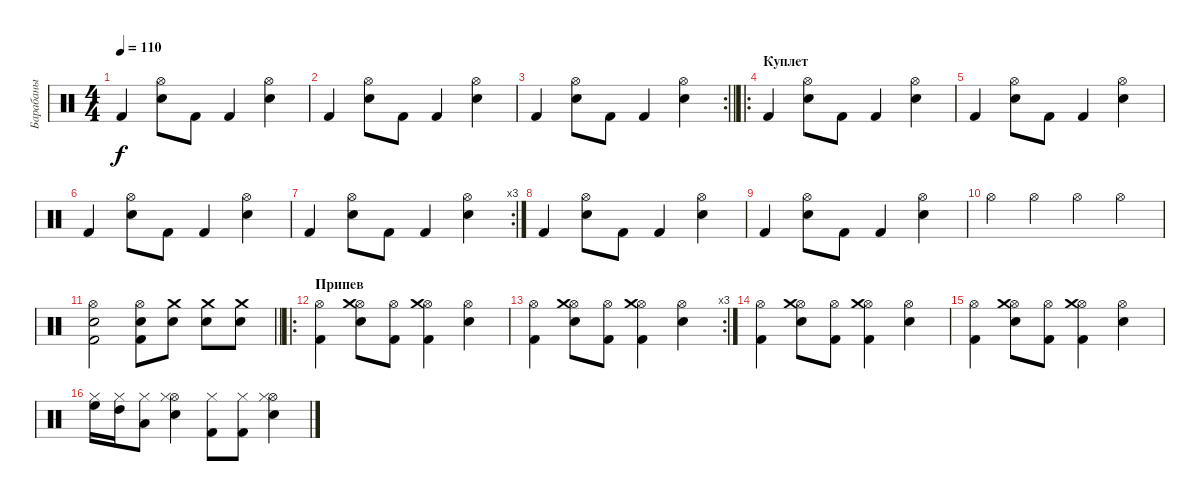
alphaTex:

\track ("Барабаны" "Барабаны") {instrument percussion}
\staff {score}
\articulation defaults
\ts (4 4)
\tempo 110
\clef neutral
\ks c "Kick (hit) 2".4{dy f}
("Snare (hit) 2" "Hi-Hat (open)").8 "Kick (hit) 2".8 "Kick (hit) 2".4 ("Snare (hit) 2" "Hi-Hat (open)").4 |
"Kick (hit) 2".4 ("Snare (hit) 2" "Hi-Hat (open)").8 "Kick (hit) 2".8 "Kick (hit) 2".4 ("Snare (hit) 2" "Hi-Hat (open)").4 |
\rc 2
\barLineRight lightlight "Kick (hit) 2".4
("Snare (hit) 2" "Hi-Hat (open)").8 "Kick (hit) 2".8 "Kick (hit) 2".4 ("Snare (hit) 2" "Hi-Hat (open)").4 |
\ro
\section ("" "Куплет")
"Kick (hit) 2".4 ("Snare (hit) 2" "Hi-Hat (open)").8 "Kick (hit) 2".8 "Kick (hit) 2".4 ("Snare (hit) 2" "Hi-Hat (open)").4 |
"Kick (hit) 2".4 ("Snare (hit) 2" "Hi-Hat (open)").8 "Kick (hit) 2".8 "Kick (hit) 2".4 ("Snare (hit) 2" "Hi-Hat (open)").4 |
"Kick (hit) 2".4 ("Snare (hit) 2" "Hi-Hat (open)").8 "Kick (hit) 2".8 "Kick (hit) 2".4 ("Snare (hit) 2" "Hi-Hat (open)").4 |
\rc 3 "Kick (hit) 2".4
("Snare (hit) 2" "Hi-Hat (open)").8 "Kick (hit) 2".8 "Kick (hit) 2".4 ("Snare (hit) 2" "Hi-Hat (open)").4 |
"Kick (hit) 2".4 ("Snare (hit) 2" "Hi-Hat (open)").8 "Kick (hit) 2".8 "Kick (hit) 2".4 ("Snare (hit) 2" "Hi-Hat (open)").4 |
"Kick (hit) 2".4 ("Snare (hit) 2" "Hi-Hat (open)").8 "Kick (hit) 2".8 "Kick (hit) 2".4 ("Snare (hit) 2" "Hi-Hat (open)").4 |
"Hi-Hat (open)".4 "Hi-Hat (open)".4 "Hi-Hat (open)".4 "Hi-Hat (open)".4 |
\barLineRight lightlight
("Kick (hit) 2" "Snare (hit) 2" "Hi-Hat (open)").2 ("Snare (hit) 2" "Kick (hit) 2" "Hi-Hat (open)").8 ("Snare (hit) 2" "Crash medium (hit)").8 ("Snare (hit) 2" "Crash medium (hit)").8 ("Snare (hit) 2" "Crash medium (hit)").8 |
\ro
\section ("" "Припев")
("Kick (hit) 2" "Hi-Hat (open)").4 ("Snare (hit) 2" "Hi-Hat (open)" "Crash medium (hit)").8 ("Kick (hit) 2" "Hi-Hat (open)").8 ("Kick (hit) 2" "Hi-Hat (open)" "Crash medium (hit)").4 ("Snare (hit) 2" "Hi-Hat (open)").4 |
\rc 3
("Kick (hit) 2" "Hi-Hat (open)").4 ("Snare (hit) 2" "Hi-Hat (open)" "Crash medium (hit)").8 ("Kick (hit) 2" "Hi-Hat (open)").8 ("Kick (hit) 2" "Hi-Hat (open)" "Crash medium (hit)").4 ("Snare (hit) 2" "Hi-Hat (open)").4 |
("Kick (hit) 2" "Hi-Hat (open)").4 ("Snare (hit) 2" "Hi-Hat (open)" "Crash medium (hit)").8 ("Kick (hit) 2" "Hi-Hat (open)").8 ("Kick (hit) 2" "Hi-Hat (open)" "Crash medium (hit)").4 ("Snare (hit) 2" "Hi-Hat (open)").4 |
("Kick (hit) 2" "Hi-Hat (open)").4 ("Snare (hit) 2" "Hi-Hat (open)" "Crash medium (hit)").8 ("Kick (hit) 2" "Hi-Hat (open)").8 ("Kick (hit) 2" "Hi-Hat (open)" "Crash medium (hit)").4 ("Snare (hit) 2" "Hi-Hat (open)").4 |
("Hi-Hat (closed)" "High Floor Tom (hit)").16 ("Hi-Hat (closed)" "High Tom (hit)").16 ("Hi-Hat (closed)" "Low Tom (hit)").8 ("Snare (hit) 2" "Hi-Hat (open)" "Hi-Hat (closed)").4 ("Kick (hit) 2" "Hi-Hat (closed)").8 ("Kick (hit) 2" "Hi-Hat (closed)").8 ("Snare (hit) 2" "Hi-Hat (open)" "Hi-Hat (closed)").4
